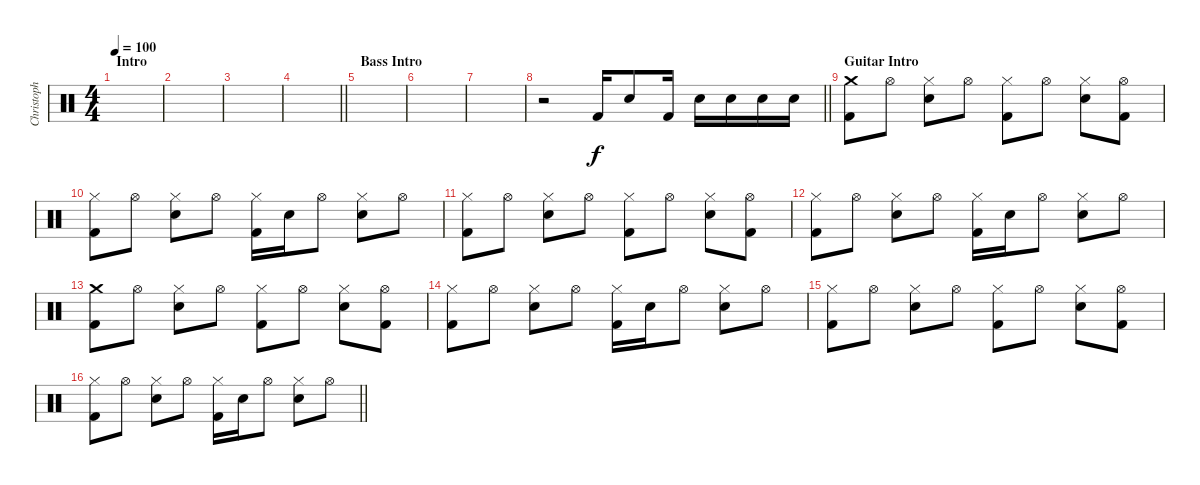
\track ("Christoph - Drums" "Christoph ") {instrument percussion}
\staff {score}
\articulation defaults
\ts (4 4)
\section ("" "Intro")
\tempo 100
\clef neutral
\ks c
|
|
|
\barLineRight lightlight
|
\section ("" "Bass Intro")
|
|
|
\barLineRight lightlight
r.2 "Kick (hit) 2".16 "Snare (hit) 2".8 "Kick (hit) 2".16 "Snare (hit) 2".16 "Snare (hit) 2".16 "Snare (hit) 2".16 "Snare (hit) 2".16 |
\section ("" "Guitar Intro")
("Crash medium (hit)" "Kick (hit) 2").8 "Hi-Hat (open)".8 ("Hi-Hat (closed)" "Snare (hit) 2").8 "Hi-Hat (open)".8 ("Hi-Hat (closed)" "Kick (hit) 2").8 "Hi-Hat (open)".8 ("Hi-Hat (closed)" "Snare (hit) 2").8 ("Hi-Hat (open)" "Kick (hit) 2").8 |
("Hi-Hat (closed)" "Kick (hit) 2").8 "Hi-Hat (open)".8 ("Hi-Hat (closed)" "Snare (hit) 2").8 "Hi-Hat (open)".8 ("Hi-Hat (closed)" "Kick (hit) 2").16 "Snare (hit) 2".16 "Hi-Hat (open)".8 ("Hi-Hat (closed)" "Snare (hit) 2").8 "Hi-Hat (open)".8 |
("Hi-Hat (closed)" "Kick (hit) 2").8 "Hi-Hat (open)".8 ("Hi-Hat (closed)" "Snare (hit) 2").8 "Hi-Hat (open)".8 ("Hi-Hat (closed)" "Kick (hit) 2").8 "Hi-Hat (open)".8 ("Hi-Hat (closed)" "Snare (hit) 2").8 ("Hi-Hat (open)" "Kick (hit) 2").8 |
("Hi-Hat (closed)" "Kick (hit) 2").8 "Hi-Hat (open)".8 ("Hi-Hat (closed)" "Snare (hit) 2").8 "Hi-Hat (open)".8 ("Hi-Hat (closed)" "Kick (hit) 2").16 "Snare (hit) 2".16 "Hi-Hat (open)".8 ("Hi-Hat (closed)" "Snare (hit) 2").8 "Hi-Hat (open)".8 |
("Crash medium (hit)" "Kick (hit) 2").8 "Hi-Hat (open)".8 ("Hi-Hat (closed)" "Snare (hit) 2").8 "Hi-Hat (open)".8 ("Hi-Hat (closed)" "Kick (hit) 2").8 "Hi-Hat (open)".8 ("Hi-Hat (closed)" "Snare (hit) 2").8 ("Hi-Hat (open)" "Kick (hit) 2").8 |
("Hi-Hat (closed)" "Kick (hit) 2").8 "Hi-Hat (open)".8 ("Hi-Hat (closed)" "Snare (hit) 2").8 "Hi-Hat (open)".8 ("Hi-Hat (closed)" "Kick (hit) 2").16 "Snare (hit) 2".16 "Hi-Hat (open)".8 ("Hi-Hat (closed)" "Snare (hit) 2").8 "Hi-Hat (open)".8 |
("Hi-Hat (closed)" "Kick (hit) 2").8 "Hi-Hat (open)".8 ("Hi-Hat (closed)" "Snare (hit) 2").8 "Hi-Hat (open)".8 ("Hi-Hat (closed)" "Kick (hit) 2").8 "Hi-Hat (open)".8 ("Hi-Hat (closed)" "Snare (hit) 2").8 ("Hi-Hat (open)" "Kick (hit) 2").8 |
\barLineRight lightlight
("Hi-Hat (closed)" "Kick (hit) 2").8 "Hi-Hat (open)".8 ("Hi-Hat (closed)" "Snare (hit) 2").8 "Hi-Hat (open)".8 ("Hi-Hat (closed)" "Kick (hit) 2").16 "Snare (hit) 2".16 "Hi-Hat (open)".8 ("Hi-Hat (closed)" "Snare (hit) 2").8 "Hi-Hat (open)".8
